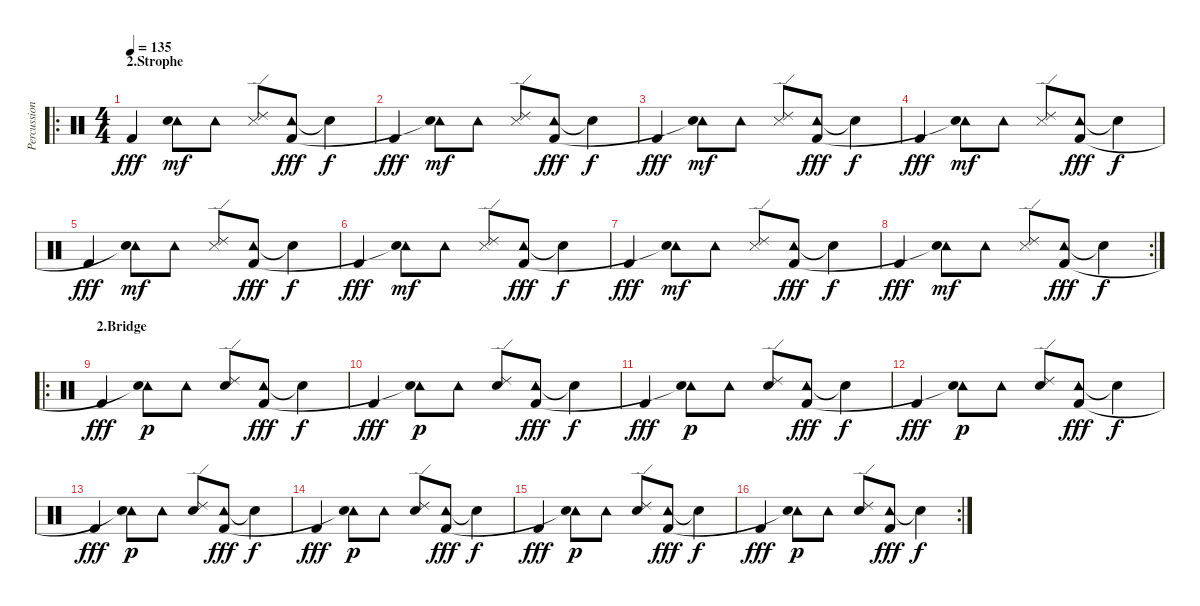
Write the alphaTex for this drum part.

\track ("Percussion" "Percussion") {instrument percussion}
\staff {score}
\articulation defaults
\ro
\ts (4 4)
\section ("" "2.Strophe")
\tempo 135
\clef neutral
\ks c "Kick (hit) 2".4{dy fff}
("Tambourine (hit)" "Snare (hit)"{t}).8{dy mf} "Tambourine (hit)".8 ("Snare (side stick) 3" "Ride (edge) 2").8 ("Tambourine (hit)" "Kick (hit) 2").8{dy fff} "Snare (hit)"{t}.4{dy f} |
"Kick (hit) 2".4{dy fff} ("Tambourine (hit)" "Snare (hit)"{t}).8{dy mf} "Tambourine (hit)".8 ("Snare (side stick) 3" "Ride (edge) 2").8 ("Tambourine (hit)" "Kick (hit) 2").8{dy fff} "Snare (hit)"{t}.4{dy f} |
"Kick (hit) 2".4{dy fff} ("Tambourine (hit)" "Snare (hit)"{t}).8{dy mf} "Tambourine (hit)".8 ("Snare (side stick) 3" "Ride (edge) 2").8 ("Tambourine (hit)" "Kick (hit) 2").8{dy fff} "Snare (hit)"{t}.4{dy f} |
"Kick (hit) 2".4{dy fff} ("Tambourine (hit)" "Snare (hit)"{t}).8{dy mf} "Tambourine (hit)".8 ("Snare (side stick) 3" "Ride (edge) 2").8 ("Tambourine (hit)" "Kick (hit) 2").8{dy fff} "Snare (hit)"{t}.4{dy f} |
"Kick (hit) 2".4{dy fff} ("Tambourine (hit)" "Snare (hit)"{t}).8{dy mf} "Tambourine (hit)".8 ("Snare (side stick) 3" "Ride (edge) 2").8 ("Tambourine (hit)" "Kick (hit) 2").8{dy fff} "Snare (hit)"{t}.4{dy f} |
"Kick (hit) 2".4{dy fff} ("Tambourine (hit)" "Snare (hit)"{t}).8{dy mf} "Tambourine (hit)".8 ("Snare (side stick) 3" "Ride (edge) 2").8 ("Tambourine (hit)" "Kick (hit) 2").8{dy fff} "Snare (hit)"{t}.4{dy f} |
"Kick (hit) 2".4{dy fff} ("Tambourine (hit)" "Snare (hit)"{t}).8{dy mf} "Tambourine (hit)".8 ("Snare (side stick) 3" "Ride (edge) 2").8 ("Tambourine (hit)" "Kick (hit) 2").8{dy fff} "Snare (hit)"{t}.4{dy f} |
\rc 2 "Kick (hit) 2".4{dy fff}
("Tambourine (hit)" "Snare (hit)"{t}).8{dy mf} "Tambourine (hit)".8 ("Snare (side stick) 3" "Ride (edge) 2").8 ("Tambourine (hit)" "Kick (hit) 2").8{dy fff} "Snare (hit)"{t}.4{dy f} |
\ro
\section ("" "2.Bridge")
"Kick (hit) 2".4{dy fff volume 15} ("Tambourine (hit)" "Snare (hit)"{t}).8{dy p} "Tambourine (hit)".8 ("Snare (hit) 2" "Ride (edge) 2").8 ("Tambourine (hit)" "Kick (hit) 2").8{dy fff} "Snare (hit)"{t}.4{dy f} |
"Kick (hit) 2".4{dy fff} ("Tambourine (hit)" "Snare (hit)"{t}).8{dy p} "Tambourine (hit)".8 ("Snare (hit) 2" "Ride (edge) 2").8 ("Tambourine (hit)" "Kick (hit) 2").8{dy fff} "Snare (hit)"{t}.4{dy f} |
"Kick (hit) 2".4{dy fff} ("Tambourine (hit)" "Snare (hit)"{t}).8{dy p} "Tambourine (hit)".8 ("Snare (hit) 2" "Ride (edge) 2").8 ("Tambourine (hit)" "Kick (hit) 2").8{dy fff} "Snare (hit)"{t}.4{dy f} |
"Kick (hit) 2".4{dy fff} ("Tambourine (hit)" "Snare (hit)"{t}).8{dy p} "Tambourine (hit)".8 ("Snare (hit) 2" "Ride (edge) 2").8 ("Tambourine (hit)" "Kick (hit) 2").8{dy fff} "Snare (hit)"{t}.4{dy f} |
"Kick (hit) 2".4{dy fff} ("Tambourine (hit)" "Snare (hit)"{t}).8{dy p} "Tambourine (hit)".8 ("Snare (hit) 2" "Ride (edge) 2").8 ("Tambourine (hit)" "Kick (hit) 2").8{dy fff} "Snare (hit)"{t}.4{dy f} |
"Kick (hit) 2".4{dy fff} ("Tambourine (hit)" "Snare (hit)"{t}).8{dy p} "Tambourine (hit)".8 ("Snare (hit) 2" "Ride (edge) 2").8 ("Tambourine (hit)" "Kick (hit) 2").8{dy fff} "Snare (hit)"{t}.4{dy f} |
"Kick (hit) 2".4{dy fff} ("Tambourine (hit)" "Snare (hit)"{t}).8{dy p} "Tambourine (hit)".8 ("Snare (hit) 2" "Ride (edge) 2").8 ("Tambourine (hit)" "Kick (hit) 2").8{dy fff} "Snare (hit)"{t}.4{dy f} |
\rc 2 "Kick (hit) 2".4{dy fff}
("Tambourine (hit)" "Snare (hit)"{t}).8{dy p} "Tambourine (hit)".8 ("Snare (hit) 2" "Ride (edge) 2").8 ("Tambourine (hit)" "Kick (hit) 2").8{dy fff} "Snare (hit)"{t}.4{dy f}
